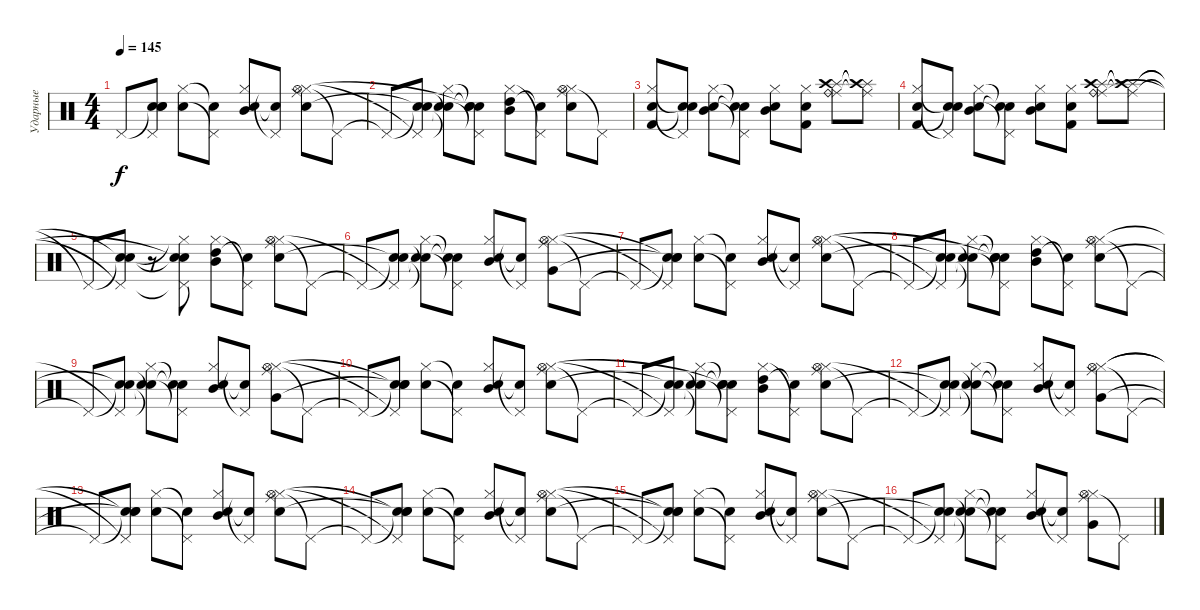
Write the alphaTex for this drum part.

\track ("Ударные" "Ударные") {instrument percussion}
\staff {score}
\articulation defaults
\ts (4 4)
\tempo 145
\clef neutral
\ks c "Pedal Hi-Hat (hit)"{t}.8{dy f}
("Snare (hit)"{t} "Pedal Hi-Hat (hit)"{t} "Snare (hit)"{t} "Snare (hit)"{t}).8 ("Snare (hit) 2" "Hi-Hat (closed)").8 ("Pedal Hi-Hat (hit)"{t} "Snare (hit)"{t}).8 ("Hi-Hat (closed)" "Snare (hit) 2" "Mid Tom (hit)").8 ("Pedal Hi-Hat (hit)"{t} "Snare (hit)"{t}).8 ("Ride (middle)" "Hi-Hat (closed)" "Snare (hit) 2" "Hi-Hat (open)").8 "Pedal Hi-Hat (hit)"{t}.8 |
"Pedal Hi-Hat (hit)"{t}.8 ("Snare (hit)"{t} "Pedal Hi-Hat (hit)"{t} "Snare (hit)"{t}).8 ("Snare (hit)"{t} "Snare (hit) 2"{t} "Hi-Hat (closed)"{t}).8 ("Snare (hit)"{t} "Pedal Hi-Hat (hit)"{t} "Snare (hit)"{t} "Snare (hit)"{t}).8 ("Hi-Hat (closed)" "High Tom (hit)" "Mid Tom (hit)").8 ("Pedal Hi-Hat (hit)"{t} "Snare (hit)"{t}).8 ("Ride (middle)" "Hi-Hat (closed)" "Snare (hit) 2" "Hi-Hat (open)").8 "Pedal Hi-Hat (hit)"{t}.8 |
("Kick (hit) 2" "Snare (hit) 2" "Hi-Hat (closed)").8 ("Snare (hit)"{t} "Pedal Hi-Hat (hit)"{t} "Snare (hit)"{t}).8 ("Mid Tom (hit)" "Electric Snare (hit)" "Hi-Hat (closed)").8 ("Snare (hit)"{t} "Pedal Hi-Hat (hit)"{t} "Snare (hit)"{t}).8 ("Mid Tom (hit)" "Electric Snare (hit)" "Hi-Hat (closed)").8 ("Kick (hit) 2" "Snare (hit) 2" "Hi-Hat (closed)").8 ("Splash (hit)" "Ride (middle)" "Crash high (hit)" "Ride (bell)").8 ("Splash (hit)"{t} "Ride (middle)"{t} "Crash high (hit)"{t}).8 |
("Kick (hit) 2" "Snare (hit) 2" "Hi-Hat (closed)").8 ("Snare (hit)"{t} "Pedal Hi-Hat (hit)"{t} "Snare (hit)"{t}).8 ("Mid Tom (hit)" "Electric Snare (hit)" "Hi-Hat (closed)").8 ("Snare (hit)"{t} "Pedal Hi-Hat (hit)"{t} "Snare (hit)"{t}).8 ("Mid Tom (hit)" "Electric Snare (hit)" "Hi-Hat (closed)").8 ("Kick (hit) 2" "Snare (hit) 2" "Hi-Hat (closed)").8 ("Splash (hit)" "Ride (middle)" "Crash high (hit)" "Ride (bell)").8 ("Splash (hit)"{t} "Ride (middle)"{t} "Crash high (hit)"{t}).8 |
"Pedal Hi-Hat (hit)"{t}.8 ("Snare (hit)"{t} "Pedal Hi-Hat (hit)"{t} "Snare (hit)"{t}).8 r.8 ("Hi-Hat (closed)"{t} "Pedal Hi-Hat (hit)"{t} "Snare (hit)"{t} "Snare (hit)"{t}).8 ("Hi-Hat (closed)" "High Tom (hit)" "Mid Tom (hit)").8 ("Pedal Hi-Hat (hit)"{t} "Snare (hit)"{t}).8 ("Ride (middle)" "Hi-Hat (closed)" "Snare (hit) 2" "Hi-Hat (open)").8 "Pedal Hi-Hat (hit)"{t}.8 |
"Pedal Hi-Hat (hit)"{t}.8 ("Snare (hit)"{t} "Pedal Hi-Hat (hit)"{t} "Snare (hit)"{t}).8 ("Snare (hit)"{t} "Snare (hit) 2"{t} "Hi-Hat (closed)"{t}).8 ("Pedal Hi-Hat (hit)"{t} "Snare (hit)"{t} "Snare (hit)"{t}).8 ("Hi-Hat (closed)" "Snare (hit) 2" "Mid Tom (hit)").8 ("Pedal Hi-Hat (hit)"{t} "Snare (hit)"{t}).8 ("Ride (middle)" "Hi-Hat (closed)" "Very Low Tom (hit)" "Hi-Hat (open)").8 "Pedal Hi-Hat (hit)"{t}.8 |
"Pedal Hi-Hat (hit)"{t}.8 ("Snare (hit)"{t} "Pedal Hi-Hat (hit)"{t} "Snare (hit)"{t} "Snare (hit)"{t}).8 ("Snare (hit) 2" "Hi-Hat (closed)").8 ("Pedal Hi-Hat (hit)"{t} "Snare (hit)"{t}).8 ("Hi-Hat (closed)" "Snare (hit) 2" "Mid Tom (hit)").8 ("Pedal Hi-Hat (hit)"{t} "Snare (hit)"{t}).8 ("Ride (middle)" "Hi-Hat (closed)" "Snare (hit) 2" "Hi-Hat (open)").8 "Pedal Hi-Hat (hit)"{t}.8 |
"Pedal Hi-Hat (hit)"{t}.8 ("Snare (hit)"{t} "Pedal Hi-Hat (hit)"{t} "Snare (hit)"{t}).8 ("Snare (hit)"{t} "Snare (hit) 2"{t} "Hi-Hat (closed)"{t}).8 ("Snare (hit)"{t} "Pedal Hi-Hat (hit)"{t} "Snare (hit)"{t} "Snare (hit)"{t}).8 ("Hi-Hat (closed)" "High Tom (hit)" "Mid Tom (hit)").8 ("Pedal Hi-Hat (hit)"{t} "Snare (hit)"{t}).8 ("Ride (middle)" "Hi-Hat (closed)" "Snare (hit) 2" "Hi-Hat (open)").8 "Pedal Hi-Hat (hit)"{t}.8 |
"Pedal Hi-Hat (hit)"{t}.8 ("Snare (hit)"{t} "Pedal Hi-Hat (hit)"{t} "Snare (hit)"{t}).8 ("Snare (hit)"{t} "Snare (hit) 2"{t} "Hi-Hat (closed)"{t}).8 ("Pedal Hi-Hat (hit)"{t} "Snare (hit)"{t} "Snare (hit)"{t}).8 ("Hi-Hat (closed)" "Snare (hit) 2" "Mid Tom (hit)").8 ("Pedal Hi-Hat (hit)"{t} "Snare (hit)"{t}).8 ("Ride (middle)" "Hi-Hat (closed)" "Very Low Tom (hit)" "Hi-Hat (open)").8 "Pedal Hi-Hat (hit)"{t}.8 |
"Pedal Hi-Hat (hit)"{t}.8 ("Snare (hit)"{t} "Pedal Hi-Hat (hit)"{t} "Snare (hit)"{t} "Snare (hit)"{t}).8 ("Snare (hit) 2" "Hi-Hat (closed)").8 ("Pedal Hi-Hat (hit)"{t} "Snare (hit)"{t}).8 ("Hi-Hat (closed)" "Snare (hit) 2" "Mid Tom (hit)").8 ("Pedal Hi-Hat (hit)"{t} "Snare (hit)"{t}).8 ("Ride (middle)" "Hi-Hat (closed)" "Snare (hit) 2" "Hi-Hat (open)").8 "Pedal Hi-Hat (hit)"{t}.8 |
"Pedal Hi-Hat (hit)"{t}.8 ("Snare (hit)"{t} "Pedal Hi-Hat (hit)"{t} "Snare (hit)"{t}).8 ("Snare (hit)"{t} "Snare (hit) 2"{t} "Hi-Hat (closed)"{t}).8 ("Snare (hit)"{t} "Pedal Hi-Hat (hit)"{t} "Snare (hit)"{t} "Snare (hit)"{t}).8 ("Hi-Hat (closed)" "High Tom (hit)" "Mid Tom (hit)").8 ("Pedal Hi-Hat (hit)"{t} "Snare (hit)"{t}).8 ("Ride (middle)" "Hi-Hat (closed)" "Snare (hit) 2" "Hi-Hat (open)").8 "Pedal Hi-Hat (hit)"{t}.8 |
"Pedal Hi-Hat (hit)"{t}.8 ("Snare (hit)"{t} "Pedal Hi-Hat (hit)"{t} "Snare (hit)"{t}).8 ("Snare (hit)"{t} "Snare (hit) 2"{t} "Hi-Hat (closed)"{t}).8 ("Pedal Hi-Hat (hit)"{t} "Snare (hit)"{t} "Snare (hit)"{t}).8 ("Hi-Hat (closed)" "Snare (hit) 2" "Mid Tom (hit)").8 ("Pedal Hi-Hat (hit)"{t} "Snare (hit)"{t}).8 ("Ride (middle)" "Hi-Hat (closed)" "Very Low Tom (hit)" "Hi-Hat (open)").8 "Pedal Hi-Hat (hit)"{t}.8 |
"Pedal Hi-Hat (hit)"{t}.8 ("Snare (hit)"{t} "Pedal Hi-Hat (hit)"{t} "Snare (hit)"{t} "Snare (hit)"{t}).8 ("Snare (hit) 2" "Hi-Hat (closed)").8 ("Pedal Hi-Hat (hit)"{t} "Snare (hit)"{t}).8 ("Hi-Hat (closed)" "Snare (hit) 2" "Mid Tom (hit)").8 ("Pedal Hi-Hat (hit)"{t} "Snare (hit)"{t}).8 ("Ride (middle)" "Hi-Hat (closed)" "Snare (hit) 2" "Hi-Hat (open)").8 "Pedal Hi-Hat (hit)"{t}.8 |
"Pedal Hi-Hat (hit)"{t}.8 ("Snare (hit)"{t} "Pedal Hi-Hat (hit)"{t} "Snare (hit)"{t} "Snare (hit)"{t}).8 ("Snare (hit) 2" "Hi-Hat (closed)").8 ("Pedal Hi-Hat (hit)"{t} "Snare (hit)"{t}).8 ("Hi-Hat (closed)" "Snare (hit) 2" "Mid Tom (hit)").8 ("Pedal Hi-Hat (hit)"{t} "Snare (hit)"{t}).8 ("Ride (middle)" "Hi-Hat (closed)" "Snare (hit) 2" "Hi-Hat (open)").8 "Pedal Hi-Hat (hit)"{t}.8 |
"Pedal Hi-Hat (hit)"{t}.8 ("Snare (hit)"{t} "Pedal Hi-Hat (hit)"{t} "Snare (hit)"{t} "Snare (hit)"{t}).8 ("Snare (hit) 2" "Hi-Hat (closed)").8 ("Pedal Hi-Hat (hit)"{t} "Snare (hit)"{t}).8 ("Hi-Hat (closed)" "Snare (hit) 2" "Mid Tom (hit)").8 ("Pedal Hi-Hat (hit)"{t} "Snare (hit)"{t}).8 ("Ride (middle)" "Hi-Hat (closed)" "Snare (hit) 2" "Hi-Hat (open)").8 "Pedal Hi-Hat (hit)"{t}.8 |
"Pedal Hi-Hat (hit)"{t}.8 ("Snare (hit)"{t} "Pedal Hi-Hat (hit)"{t} "Snare (hit)"{t}).8 ("Snare (hit)"{t} "Snare (hit) 2"{t} "Hi-Hat (closed)"{t}).8 ("Pedal Hi-Hat (hit)"{t} "Snare (hit)"{t} "Snare (hit)"{t}).8 ("Hi-Hat (closed)" "Snare (hit) 2" "Mid Tom (hit)").8 ("Pedal Hi-Hat (hit)"{t} "Snare (hit)"{t}).8 ("Ride (middle)" "Hi-Hat (closed)" "Very Low Tom (hit)" "Hi-Hat (open)").8 "Pedal Hi-Hat (hit)"{t}.8
